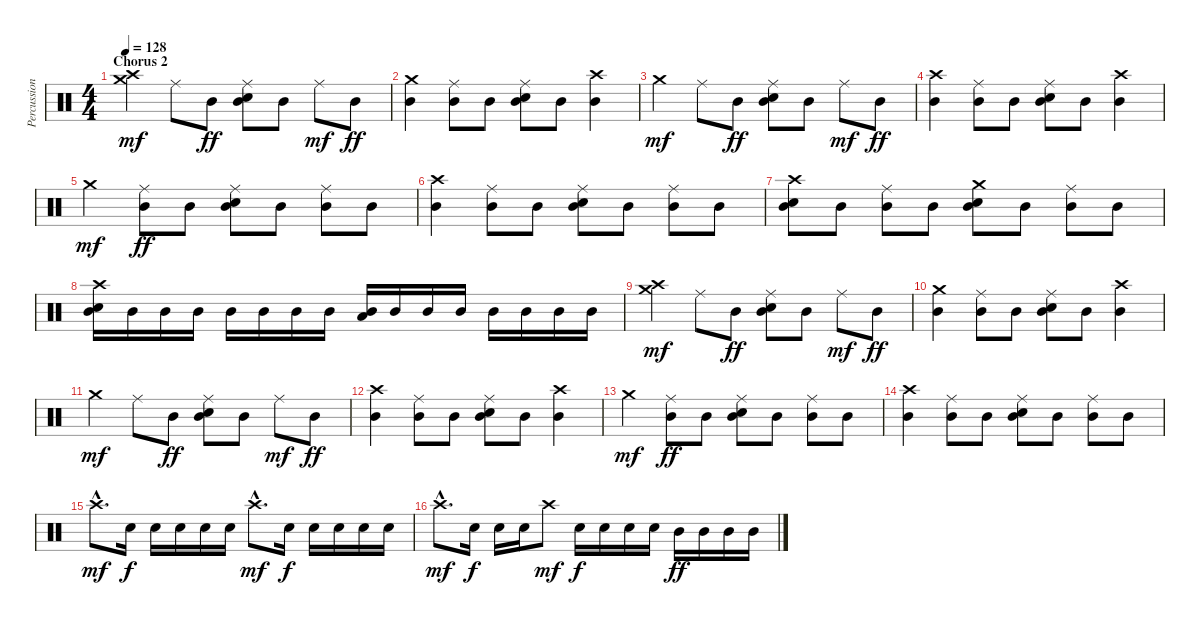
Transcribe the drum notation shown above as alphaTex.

\track ("Percussion" "Percussion") {instrument percussion}
\staff {score}
\articulation defaults
\ts (4 4)
\section ("" "Chorus 2")
\tempo 128
\clef neutral
\ks c
("Crash high (hit)" "Crash medium (hit)").4{dy mf} "Ride (middle)".8 "Mid Tom (hit)".8{dy ff} ("Ride (middle)" "Electric Snare (hit)" "Mid Tom (hit)").8 "Mid Tom (hit)".8 "Ride (middle)".8{dy mf} "Mid Tom (hit)".8{dy ff} |
("Crash medium (hit)" "Mid Tom (hit)").4 ("Ride (middle)" "Mid Tom (hit)").8 "Mid Tom (hit)".8 ("Ride (middle)" "Electric Snare (hit)" "Mid Tom (hit)").8 "Mid Tom (hit)".8 ("Crash high (hit)" "Mid Tom (hit)").4 |
"Crash medium (hit)".4{dy mf} "Ride (middle)".8 "Mid Tom (hit)".8{dy ff} ("Ride (middle)" "Electric Snare (hit)" "Mid Tom (hit)").8 "Mid Tom (hit)".8 "Ride (middle)".8{dy mf} "Mid Tom (hit)".8{dy ff} |
("Crash high (hit)" "Mid Tom (hit)").4 ("Ride (middle)" "Mid Tom (hit)").8 "Mid Tom (hit)".8 ("Ride (middle)" "Electric Snare (hit)" "Mid Tom (hit)").8 "Mid Tom (hit)".8 ("Crash high (hit)" "Mid Tom (hit)").4 |
"Crash medium (hit)".4{dy mf} ("Ride (middle)" "Mid Tom (hit)").8{dy ff} "Mid Tom (hit)".8 ("Ride (middle)" "Electric Snare (hit)" "Mid Tom (hit)").8 "Mid Tom (hit)".8 ("Ride (middle)" "Mid Tom (hit)").8 "Mid Tom (hit)".8 |
("Crash high (hit)" "Mid Tom (hit)").4 ("Ride (middle)" "Mid Tom (hit)").8 "Mid Tom (hit)".8 ("Ride (middle)" "Electric Snare (hit)" "Mid Tom (hit)").8 "Mid Tom (hit)".8 ("Ride (middle)" "Mid Tom (hit)").8 "Mid Tom (hit)".8 |
("Crash high (hit)" "Electric Snare (hit)" "Mid Tom (hit)").8 "Mid Tom (hit)".8 ("Ride (middle)" "Mid Tom (hit)").8 "Mid Tom (hit)".8 ("Crash medium (hit)" "Electric Snare (hit)" "Mid Tom (hit)").8 "Mid Tom (hit)".8 ("Ride (middle)" "Mid Tom (hit)").8 "Mid Tom (hit)".8 |
("Crash high (hit)" "Electric Snare (hit)" "Mid Tom (hit)").16 "Mid Tom (hit)".16 "Mid Tom (hit)".16 "Mid Tom (hit)".16 "Mid Tom (hit)".16 "Mid Tom (hit)".16 "Mid Tom (hit)".16 "Mid Tom (hit)".16 ("Low Floor Tom (hit)" "Mid Tom (hit)").16 "Mid Tom (hit)".16 "Mid Tom (hit)".16 "Mid Tom (hit)".16 "Mid Tom (hit)".16 "Mid Tom (hit)".16 "Mid Tom (hit)".16 "Mid Tom (hit)".16 |
("Crash high (hit)" "Crash medium (hit)").4{dy mf} "Ride (middle)".8 "Mid Tom (hit)".8{dy ff} ("Ride (middle)" "Electric Snare (hit)" "Mid Tom (hit)").8 "Mid Tom (hit)".8 "Ride (middle)".8{dy mf} "Mid Tom (hit)".8{dy ff} |
("Crash medium (hit)" "Mid Tom (hit)").4 ("Ride (middle)" "Mid Tom (hit)").8 "Mid Tom (hit)".8 ("Ride (middle)" "Electric Snare (hit)" "Mid Tom (hit)").8 "Mid Tom (hit)".8 ("Crash high (hit)" "Mid Tom (hit)").4 |
"Crash medium (hit)".4{dy mf} "Ride (middle)".8 "Mid Tom (hit)".8{dy ff} ("Ride (middle)" "Electric Snare (hit)" "Mid Tom (hit)").8 "Mid Tom (hit)".8 "Ride (middle)".8{dy mf} "Mid Tom (hit)".8{dy ff} |
("Crash high (hit)" "Mid Tom (hit)").4 ("Ride (middle)" "Mid Tom (hit)").8 "Mid Tom (hit)".8 ("Ride (middle)" "Electric Snare (hit)" "Mid Tom (hit)").8 "Mid Tom (hit)".8 ("Crash high (hit)" "Mid Tom (hit)").4 |
"Crash medium (hit)".4{dy mf} ("Ride (middle)" "Mid Tom (hit)").8{dy ff} "Mid Tom (hit)".8 ("Ride (middle)" "Electric Snare (hit)" "Mid Tom (hit)").8 "Mid Tom (hit)".8 ("Ride (middle)" "Mid Tom (hit)").8 "Mid Tom (hit)".8 |
("Crash high (hit)" "Mid Tom (hit)").4 ("Ride (middle)" "Mid Tom (hit)").8 "Mid Tom (hit)".8 ("Ride (middle)" "Electric Snare (hit)" "Mid Tom (hit)").8 "Mid Tom (hit)".8 ("Ride (middle)" "Mid Tom (hit)").8 "Mid Tom (hit)".8 |
"Crash high (hit)"{hac}.8{d dy mf} "Snare (hit) 2".16{dy f} "Snare (hit) 2".16 "Snare (hit) 2".16 "Snare (hit) 2".16 "Snare (hit) 2".16 "Crash high (hit)"{hac}.8{d dy mf} "Snare (hit) 2".16{dy f} "Snare (hit) 2".16 "Snare (hit) 2".16 "Snare (hit) 2".16 "Snare (hit) 2".16 |
"Crash high (hit)"{hac}.8{d dy mf} "Snare (hit) 2".16{dy f} "Snare (hit) 2".16 "Snare (hit) 2".16 "Crash high (hit)".8{dy mf} "Snare (hit) 2".16{dy f} "Snare (hit) 2".16 "Snare (hit) 2".16 "Snare (hit) 2".16 "Mid Tom (hit)".16{dy ff} "Mid Tom (hit)".16 "Mid Tom (hit)".16 "Mid Tom (hit)".16
